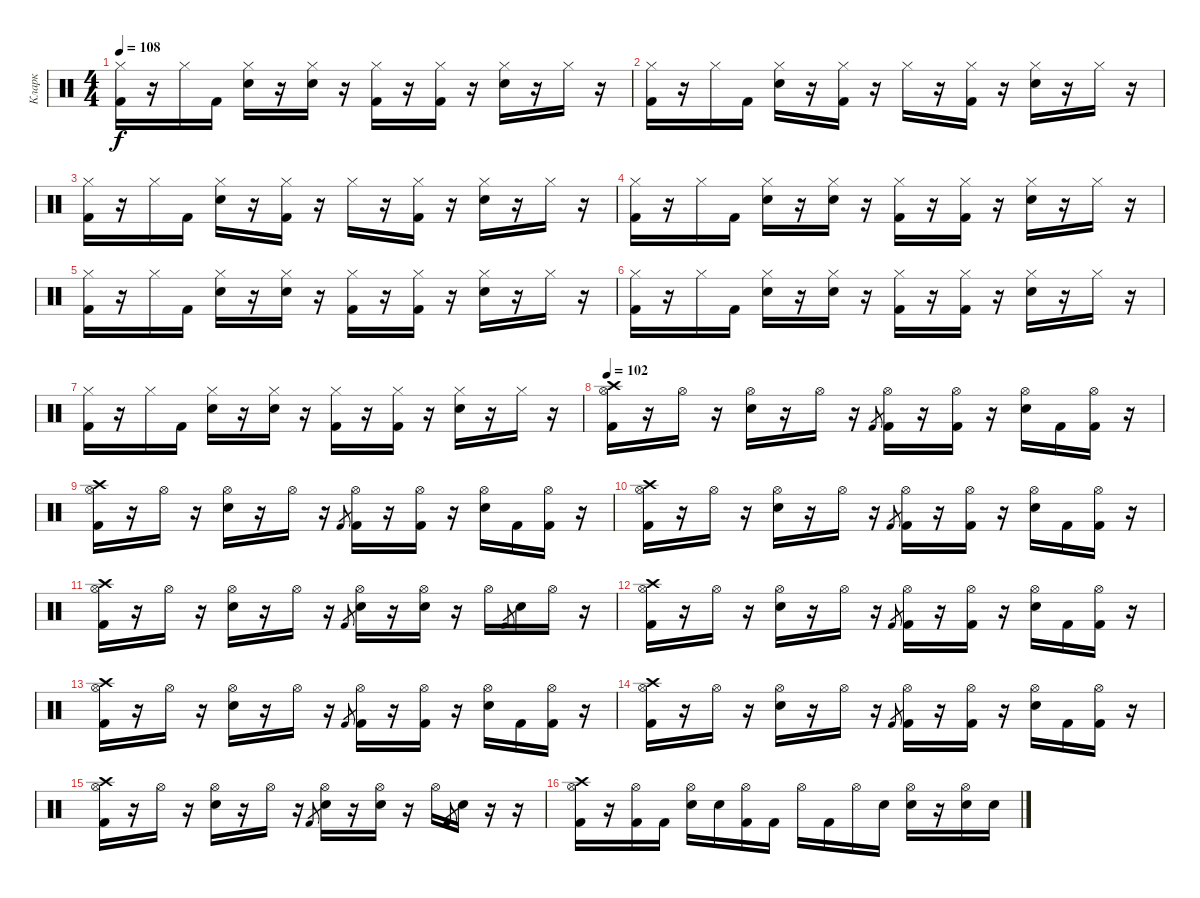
\track ("Кларк" "Кларк") {instrument percussion}
\staff {score}
\articulation defaults
\ts (4 4)
\tempo 108
\clef neutral
\ks c
("Hi-Hat (closed)" "Kick (hit) 2").16{dy f} r.16 "Hi-Hat (closed)".16 "Kick (hit) 2".16 ("Hi-Hat (closed)" "Electric Snare (hit)").16 r.16 ("Hi-Hat (closed)" "Electric Snare (hit)").16 r.16 ("Hi-Hat (closed)" "Kick (hit) 2").16 r.16 ("Hi-Hat (closed)" "Kick (hit) 2").16 r.16 ("Hi-Hat (closed)" "Electric Snare (hit)").16 r.16 "Hi-Hat (closed)".16 r.16 |
("Hi-Hat (closed)" "Kick (hit) 2").16 r.16 "Hi-Hat (closed)".16 "Kick (hit) 2".16 ("Hi-Hat (closed)" "Electric Snare (hit)").16 r.16 ("Hi-Hat (closed)" "Kick (hit) 2").16 r.16 "Hi-Hat (closed)".16 r.16 ("Hi-Hat (closed)" "Kick (hit) 2").16 r.16 ("Hi-Hat (closed)" "Electric Snare (hit)").16 r.16 "Hi-Hat (closed)".16 r.16 |
("Hi-Hat (closed)" "Kick (hit) 2").16 r.16 "Hi-Hat (closed)".16 "Kick (hit) 2".16 ("Hi-Hat (closed)" "Electric Snare (hit)").16 r.16 ("Hi-Hat (closed)" "Kick (hit) 2").16 r.16 "Hi-Hat (closed)".16 r.16 ("Hi-Hat (closed)" "Kick (hit) 2").16 r.16 ("Hi-Hat (closed)" "Electric Snare (hit)").16 r.16 "Hi-Hat (closed)".16 r.16 |
("Hi-Hat (closed)" "Kick (hit) 2").16 r.16 "Hi-Hat (closed)".16 "Kick (hit) 2".16 ("Hi-Hat (closed)" "Electric Snare (hit)").16 r.16 ("Hi-Hat (closed)" "Electric Snare (hit)").16 r.16 ("Hi-Hat (closed)" "Kick (hit) 2").16 r.16 ("Hi-Hat (closed)" "Kick (hit) 2").16 r.16 ("Hi-Hat (closed)" "Electric Snare (hit)").16 r.16 "Hi-Hat (closed)".16 r.16 |
("Hi-Hat (closed)" "Kick (hit) 2").16 r.16 "Hi-Hat (closed)".16 "Kick (hit) 2".16 ("Hi-Hat (closed)" "Electric Snare (hit)").16 r.16 ("Hi-Hat (closed)" "Electric Snare (hit)").16 r.16 ("Hi-Hat (closed)" "Kick (hit) 2").16 r.16 ("Hi-Hat (closed)" "Kick (hit) 2").16 r.16 ("Hi-Hat (closed)" "Electric Snare (hit)").16 r.16 "Hi-Hat (closed)".16 r.16 |
("Hi-Hat (closed)" "Kick (hit) 2").16 r.16 "Hi-Hat (closed)".16 "Kick (hit) 2".16 ("Hi-Hat (closed)" "Electric Snare (hit)").16 r.16 ("Hi-Hat (closed)" "Electric Snare (hit)").16 r.16 ("Hi-Hat (closed)" "Kick (hit) 2").16 r.16 ("Hi-Hat (closed)" "Kick (hit) 2").16 r.16 ("Hi-Hat (closed)" "Electric Snare (hit)").16 r.16 "Hi-Hat (closed)".16 r.16 |
("Hi-Hat (closed)" "Kick (hit) 2").16 r.16 "Hi-Hat (closed)".16 "Kick (hit) 2".16 ("Hi-Hat (closed)" "Electric Snare (hit)").16 r.16 ("Hi-Hat (closed)" "Electric Snare (hit)").16 r.16 ("Hi-Hat (closed)" "Kick (hit) 2").16 r.16 ("Hi-Hat (closed)" "Kick (hit) 2").16 r.16 ("Hi-Hat (closed)" "Electric Snare (hit)").16 r.16 "Hi-Hat (closed)".16 r.16 |
\tempo 102
("Hi-Hat (open)" "Crash high (hit)" "Kick (hit) 2").16 r.16 "Hi-Hat (open)".16 r.16 ("Hi-Hat (open)" "Electric Snare (hit)").16 r.16 "Hi-Hat (open)".16 r.16 "Kick (hit) 2".8{gr} ("Hi-Hat (open)" "Kick (hit) 2").16 r.16 ("Hi-Hat (open)" "Kick (hit) 2").16 r.16 ("Hi-Hat (open)" "Electric Snare (hit)").16 "Kick (hit) 2".16 ("Hi-Hat (open)" "Kick (hit) 2").16 r.16 |
("Hi-Hat (open)" "Crash high (hit)" "Kick (hit) 2").16 r.16 "Hi-Hat (open)".16 r.16 ("Hi-Hat (open)" "Electric Snare (hit)").16 r.16 "Hi-Hat (open)".16 r.16 "Kick (hit) 2".8{gr} ("Hi-Hat (open)" "Kick (hit) 2").16 r.16 ("Hi-Hat (open)" "Kick (hit) 2").16 r.16 ("Hi-Hat (open)" "Electric Snare (hit)").16 "Kick (hit) 2".16 ("Hi-Hat (open)" "Kick (hit) 2").16 r.16 |
("Hi-Hat (open)" "Crash high (hit)" "Kick (hit) 2").16 r.16 "Hi-Hat (open)".16 r.16 ("Hi-Hat (open)" "Electric Snare (hit)").16 r.16 "Hi-Hat (open)".16 r.16 "Kick (hit) 2".8{gr} ("Hi-Hat (open)" "Kick (hit) 2").16 r.16 ("Hi-Hat (open)" "Kick (hit) 2").16 r.16 ("Hi-Hat (open)" "Electric Snare (hit)").16 "Kick (hit) 2".16 ("Hi-Hat (open)" "Kick (hit) 2").16 r.16 |
("Hi-Hat (open)" "Crash high (hit)" "Kick (hit) 2").16 r.16 "Hi-Hat (open)".16 r.16 ("Hi-Hat (open)" "Electric Snare (hit)").16 r.16 "Hi-Hat (open)".16 r.16 "Kick (hit) 2".8{gr} ("Hi-Hat (open)" "Electric Snare (hit)").16 r.16 ("Hi-Hat (open)" "Electric Snare (hit)").16 r.16 "Hi-Hat (open)".16 "Kick (hit) 2".8{gr} "Electric Snare (hit)".16 "Hi-Hat (open)".16 r.16 |
("Hi-Hat (open)" "Crash high (hit)" "Kick (hit) 2").16 r.16 "Hi-Hat (open)".16 r.16 ("Hi-Hat (open)" "Electric Snare (hit)").16 r.16 "Hi-Hat (open)".16 r.16 "Kick (hit) 2".8{gr} ("Hi-Hat (open)" "Kick (hit) 2").16 r.16 ("Hi-Hat (open)" "Kick (hit) 2").16 r.16 ("Hi-Hat (open)" "Electric Snare (hit)").16 "Kick (hit) 2".16 ("Hi-Hat (open)" "Kick (hit) 2").16 r.16 |
("Hi-Hat (open)" "Crash high (hit)" "Kick (hit) 2").16 r.16 "Hi-Hat (open)".16 r.16 ("Hi-Hat (open)" "Electric Snare (hit)").16 r.16 "Hi-Hat (open)".16 r.16 "Kick (hit) 2".8{gr} ("Hi-Hat (open)" "Kick (hit) 2").16 r.16 ("Hi-Hat (open)" "Kick (hit) 2").16 r.16 ("Hi-Hat (open)" "Electric Snare (hit)").16 "Kick (hit) 2".16 ("Hi-Hat (open)" "Kick (hit) 2").16 r.16 |
("Hi-Hat (open)" "Crash high (hit)" "Kick (hit) 2").16 r.16 "Hi-Hat (open)".16 r.16 ("Hi-Hat (open)" "Electric Snare (hit)").16 r.16 "Hi-Hat (open)".16 r.16 "Kick (hit) 2".8{gr} ("Hi-Hat (open)" "Kick (hit) 2").16 r.16 ("Hi-Hat (open)" "Kick (hit) 2").16 r.16 ("Hi-Hat (open)" "Electric Snare (hit)").16 "Kick (hit) 2".16 ("Hi-Hat (open)" "Kick (hit) 2").16 r.16 |
("Hi-Hat (open)" "Crash high (hit)" "Kick (hit) 2").16 r.16 "Hi-Hat (open)".16 r.16 ("Hi-Hat (open)" "Electric Snare (hit)").16 r.16 "Hi-Hat (open)".16 r.16 "Kick (hit) 2".8{gr} ("Hi-Hat (open)" "Electric Snare (hit)").16 r.16 ("Hi-Hat (open)" "Electric Snare (hit)").16 r.16 "Hi-Hat (open)".16 "Kick (hit) 2".8{gr} "Electric Snare (hit)".16 r.16 r.16 |
("Hi-Hat (open)" "Crash high (hit)" "Kick (hit) 2").16 r.16 ("Hi-Hat (open)" "Kick (hit) 2").16 "Kick (hit) 2".16 ("Hi-Hat (open)" "Electric Snare (hit)").16 "Electric Snare (hit)".16 ("Hi-Hat (open)" "Kick (hit) 2").16 "Kick (hit) 2".16 "Hi-Hat (open)".16 "Kick (hit) 2".16 "Hi-Hat (open)".16 "Electric Snare (hit)".16 ("Hi-Hat (open)" "Electric Snare (hit)").16 r.16 ("Hi-Hat (open)" "Electric Snare (hit)").16 "Electric Snare (hit)".16
